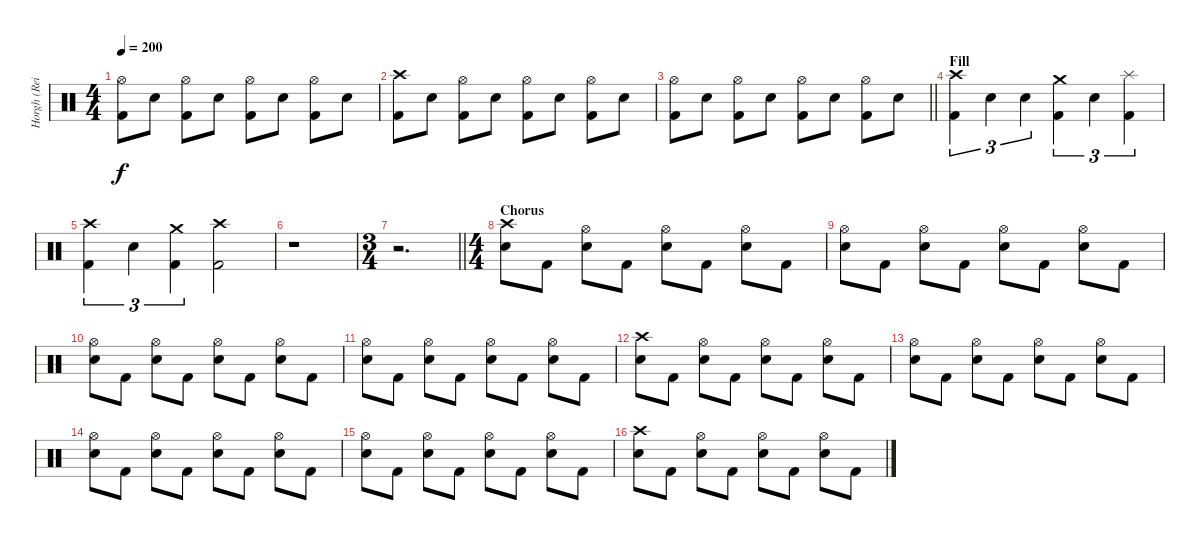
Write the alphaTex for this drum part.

\track ("Horgh (Reidar Horghagen)" "Horgh (Rei") {instrument percussion}
\staff {score}
\articulation defaults
\ts (4 4)
\tempo 200
\clef neutral
\ks c
("Hi-Hat (open)" "Kick (hit) 2").8{dy f} "Snare (hit) 2".8 ("Hi-Hat (open)" "Kick (hit) 2").8 "Snare (hit) 2".8 ("Hi-Hat (open)" "Kick (hit) 2").8 "Snare (hit) 2".8 ("Hi-Hat (open)" "Kick (hit) 2").8 "Snare (hit) 2".8 |
("Crash high (hit)" "Kick (hit) 2").8 "Snare (hit) 2".8 ("Hi-Hat (open)" "Kick (hit) 2").8 "Snare (hit) 2".8 ("Hi-Hat (open)" "Kick (hit) 2").8 "Snare (hit) 2".8 ("Hi-Hat (open)" "Kick (hit) 2").8 "Snare (hit) 2".8 |
\barLineRight lightlight
("Hi-Hat (open)" "Kick (hit) 2").8 "Snare (hit) 2".8 ("Hi-Hat (open)" "Kick (hit) 2").8 "Snare (hit) 2".8 ("Hi-Hat (open)" "Kick (hit) 2").8 "Snare (hit) 2".8 ("Hi-Hat (open)" "Kick (hit) 2").8 "Snare (hit) 2".8 |
\section ("" "Fill")
("Crash high (hit)" "Kick (hit) 2").4{tu (3 2)} "Snare (hit) 2".4{tu (3 2)} "Snare (hit) 2".4{tu (3 2)} ("Crash medium (hit)" "Kick (hit) 2").4{tu (3 2)} "Snare (hit) 2".4{tu (3 2)} ("Splash (hit)" "Kick (hit) 2").4{tu (3 2)} |
("Crash high (hit)" "Kick (hit) 2").4{tu (3 2)} "Snare (hit) 2".4{tu (3 2)} ("Crash medium (hit)" "Kick (hit) 2").4{tu (3 2)} ("Crash high (hit)" "Kick (hit) 2").2 |
r.1 |
\ts (3 4)
\barLineRight lightlight
r.2{d} |
\ts (4 4)
\section ("" "Chorus")
("Crash high (hit)" "Snare (hit) 2").8 "Kick (hit) 2".8 ("Hi-Hat (open)" "Snare (hit) 2").8 "Kick (hit) 2".8 ("Hi-Hat (open)" "Snare (hit) 2").8 "Kick (hit) 2".8 ("Hi-Hat (open)" "Snare (hit) 2").8 "Kick (hit) 2".8 |
("Hi-Hat (open)" "Snare (hit) 2").8 "Kick (hit) 2".8 ("Hi-Hat (open)" "Snare (hit) 2").8 "Kick (hit) 2".8 ("Hi-Hat (open)" "Snare (hit) 2").8 "Kick (hit) 2".8 ("Hi-Hat (open)" "Snare (hit) 2").8 "Kick (hit) 2".8 |
("Hi-Hat (open)" "Snare (hit) 2").8 "Kick (hit) 2".8 ("Hi-Hat (open)" "Snare (hit) 2").8 "Kick (hit) 2".8 ("Hi-Hat (open)" "Snare (hit) 2").8 "Kick (hit) 2".8 ("Hi-Hat (open)" "Snare (hit) 2").8 "Kick (hit) 2".8 |
("Hi-Hat (open)" "Snare (hit) 2").8 "Kick (hit) 2".8 ("Hi-Hat (open)" "Snare (hit) 2").8 "Kick (hit) 2".8 ("Hi-Hat (open)" "Snare (hit) 2").8 "Kick (hit) 2".8 ("Hi-Hat (open)" "Snare (hit) 2").8 "Kick (hit) 2".8 |
("Crash high (hit)" "Snare (hit) 2").8 "Kick (hit) 2".8 ("Hi-Hat (open)" "Snare (hit) 2").8 "Kick (hit) 2".8 ("Hi-Hat (open)" "Snare (hit) 2").8 "Kick (hit) 2".8 ("Hi-Hat (open)" "Snare (hit) 2").8 "Kick (hit) 2".8 |
("Hi-Hat (open)" "Snare (hit) 2").8 "Kick (hit) 2".8 ("Hi-Hat (open)" "Snare (hit) 2").8 "Kick (hit) 2".8 ("Hi-Hat (open)" "Snare (hit) 2").8 "Kick (hit) 2".8 ("Hi-Hat (open)" "Snare (hit) 2").8 "Kick (hit) 2".8 |
("Hi-Hat (open)" "Snare (hit) 2").8 "Kick (hit) 2".8 ("Hi-Hat (open)" "Snare (hit) 2").8 "Kick (hit) 2".8 ("Hi-Hat (open)" "Snare (hit) 2").8 "Kick (hit) 2".8 ("Hi-Hat (open)" "Snare (hit) 2").8 "Kick (hit) 2".8 |
("Hi-Hat (open)" "Snare (hit) 2").8 "Kick (hit) 2".8 ("Hi-Hat (open)" "Snare (hit) 2").8 "Kick (hit) 2".8 ("Hi-Hat (open)" "Snare (hit) 2").8 "Kick (hit) 2".8 ("Hi-Hat (open)" "Snare (hit) 2").8 "Kick (hit) 2".8 |
("Crash high (hit)" "Snare (hit) 2").8 "Kick (hit) 2".8 ("Hi-Hat (open)" "Snare (hit) 2").8 "Kick (hit) 2".8 ("Hi-Hat (open)" "Snare (hit) 2").8 "Kick (hit) 2".8 ("Hi-Hat (open)" "Snare (hit) 2").8 "Kick (hit) 2".8
